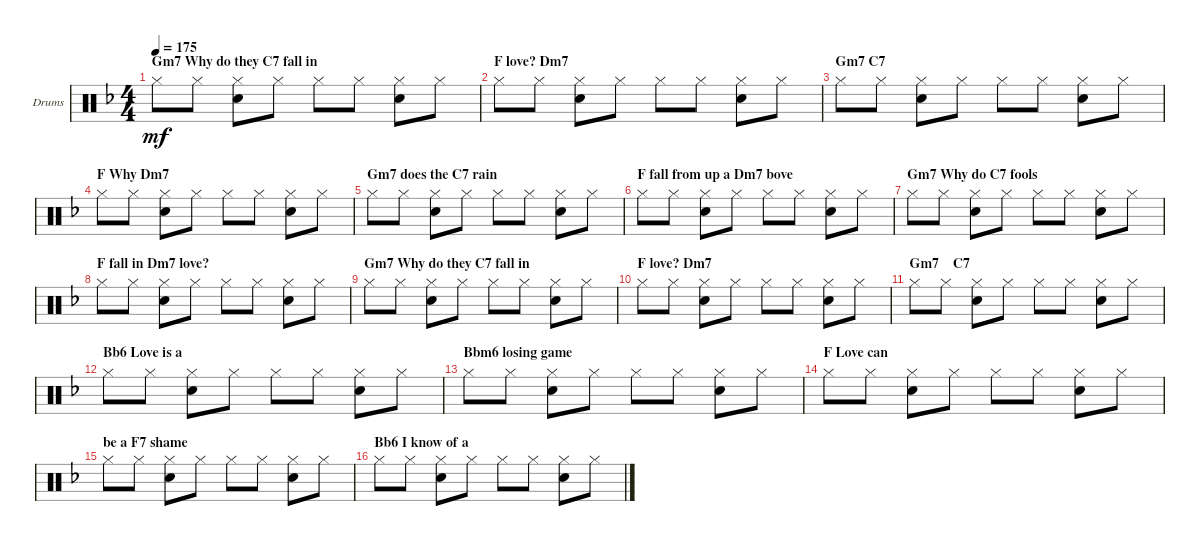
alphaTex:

\bracketExtendMode groupsimilarinstruments
\firstSystemTrackNameOrientation horizontal
\otherSystemsTrackNameOrientation horizontal
\track ("Drumkit" "Drums") {instrument percussion}
\staff {score}
\articulation defaults
\ts (4 4)
\section ("" "Gm7 Why do they C7 fall in")
\tempo 175
\clef neutral
\ks f "Hi-Hat (closed)".8{dy mf} "Hi-Hat (closed)".8
("Snare (hit) 2" "Hi-Hat (closed)").8 "Hi-Hat (closed)".8 "Hi-Hat (closed)".8 "Hi-Hat (closed)".8 ("Snare (hit) 2" "Hi-Hat (closed)").8 "Hi-Hat (closed)".8 |
\section ("" "F love? Dm7")
"Hi-Hat (closed)".8 "Hi-Hat (closed)".8 ("Snare (hit) 2" "Hi-Hat (closed)").8 "Hi-Hat (closed)".8 "Hi-Hat (closed)".8 "Hi-Hat (closed)".8 ("Snare (hit) 2" "Hi-Hat (closed)").8 "Hi-Hat (closed)".8 |
\section ("" "Gm7 C7")
"Hi-Hat (closed)".8 "Hi-Hat (closed)".8 ("Snare (hit) 2" "Hi-Hat (closed)").8 "Hi-Hat (closed)".8 "Hi-Hat (closed)".8 "Hi-Hat (closed)".8 ("Snare (hit) 2" "Hi-Hat (closed)").8 "Hi-Hat (closed)".8 |
\section ("" "F Why Dm7")
"Hi-Hat (closed)".8 "Hi-Hat (closed)".8 ("Snare (hit) 2" "Hi-Hat (closed)").8 "Hi-Hat (closed)".8 "Hi-Hat (closed)".8 "Hi-Hat (closed)".8 ("Snare (hit) 2" "Hi-Hat (closed)").8 "Hi-Hat (closed)".8 |
\section ("" "Gm7 does the C7 rain")
"Hi-Hat (closed)".8 "Hi-Hat (closed)".8 ("Snare (hit) 2" "Hi-Hat (closed)").8 "Hi-Hat (closed)".8 "Hi-Hat (closed)".8 "Hi-Hat (closed)".8 ("Snare (hit) 2" "Hi-Hat (closed)").8 "Hi-Hat (closed)".8 |
\section ("" "F fall from up a Dm7 bove")
"Hi-Hat (closed)".8 "Hi-Hat (closed)".8 ("Snare (hit) 2" "Hi-Hat (closed)").8 "Hi-Hat (closed)".8 "Hi-Hat (closed)".8 "Hi-Hat (closed)".8 ("Snare (hit) 2" "Hi-Hat (closed)").8 "Hi-Hat (closed)".8 |
\section ("" "Gm7 Why do C7 fools")
"Hi-Hat (closed)".8 "Hi-Hat (closed)".8 ("Snare (hit) 2" "Hi-Hat (closed)").8 "Hi-Hat (closed)".8 "Hi-Hat (closed)".8 "Hi-Hat (closed)".8 ("Snare (hit) 2" "Hi-Hat (closed)").8 "Hi-Hat (closed)".8 |
\section ("" "F fall in Dm7 love?")
"Hi-Hat (closed)".8 "Hi-Hat (closed)".8 ("Snare (hit) 2" "Hi-Hat (closed)").8 "Hi-Hat (closed)".8 "Hi-Hat (closed)".8 "Hi-Hat (closed)".8 ("Snare (hit) 2" "Hi-Hat (closed)").8 "Hi-Hat (closed)".8 |
\section ("" "Gm7 Why do they C7 fall in")
"Hi-Hat (closed)".8 "Hi-Hat (closed)".8 ("Snare (hit) 2" "Hi-Hat (closed)").8 "Hi-Hat (closed)".8 "Hi-Hat (closed)".8 "Hi-Hat (closed)".8 ("Snare (hit) 2" "Hi-Hat (closed)").8 "Hi-Hat (closed)".8 |
\section ("" "F love? Dm7")
"Hi-Hat (closed)".8 "Hi-Hat (closed)".8 ("Snare (hit) 2" "Hi-Hat (closed)").8 "Hi-Hat (closed)".8 "Hi-Hat (closed)".8 "Hi-Hat (closed)".8 ("Snare (hit) 2" "Hi-Hat (closed)").8 "Hi-Hat (closed)".8 |
\section ("" "Gm7    C7")
"Hi-Hat (closed)".8 "Hi-Hat (closed)".8 ("Snare (hit) 2" "Hi-Hat (closed)").8 "Hi-Hat (closed)".8 "Hi-Hat (closed)".8 "Hi-Hat (closed)".8 ("Snare (hit) 2" "Hi-Hat (closed)").8 "Hi-Hat (closed)".8 |
\section ("" "Bb6 Love is a")
"Hi-Hat (closed)".8 "Hi-Hat (closed)".8 ("Snare (hit) 2" "Hi-Hat (closed)").8 "Hi-Hat (closed)".8 "Hi-Hat (closed)".8 "Hi-Hat (closed)".8 ("Snare (hit) 2" "Hi-Hat (closed)").8 "Hi-Hat (closed)".8 |
\section ("" "Bbm6 losing game")
"Hi-Hat (closed)".8 "Hi-Hat (closed)".8 ("Snare (hit) 2" "Hi-Hat (closed)").8 "Hi-Hat (closed)".8 "Hi-Hat (closed)".8 "Hi-Hat (closed)".8 ("Snare (hit) 2" "Hi-Hat (closed)").8 "Hi-Hat (closed)".8 |
\section ("" "F Love can ")
"Hi-Hat (closed)".8 "Hi-Hat (closed)".8 ("Snare (hit) 2" "Hi-Hat (closed)").8 "Hi-Hat (closed)".8 "Hi-Hat (closed)".8 "Hi-Hat (closed)".8 ("Snare (hit) 2" "Hi-Hat (closed)").8 "Hi-Hat (closed)".8 |
\section ("" "be a F7 shame")
"Hi-Hat (closed)".8 "Hi-Hat (closed)".8 ("Snare (hit) 2" "Hi-Hat (closed)").8 "Hi-Hat (closed)".8 "Hi-Hat (closed)".8 "Hi-Hat (closed)".8 ("Snare (hit) 2" "Hi-Hat (closed)").8 "Hi-Hat (closed)".8 |
\section ("" "Bb6 I know of a")
"Hi-Hat (closed)".8 "Hi-Hat (closed)".8 ("Snare (hit) 2" "Hi-Hat (closed)").8 "Hi-Hat (closed)".8 "Hi-Hat (closed)".8 "Hi-Hat (closed)".8 ("Snare (hit) 2" "Hi-Hat (closed)").8 "Hi-Hat (closed)".8
